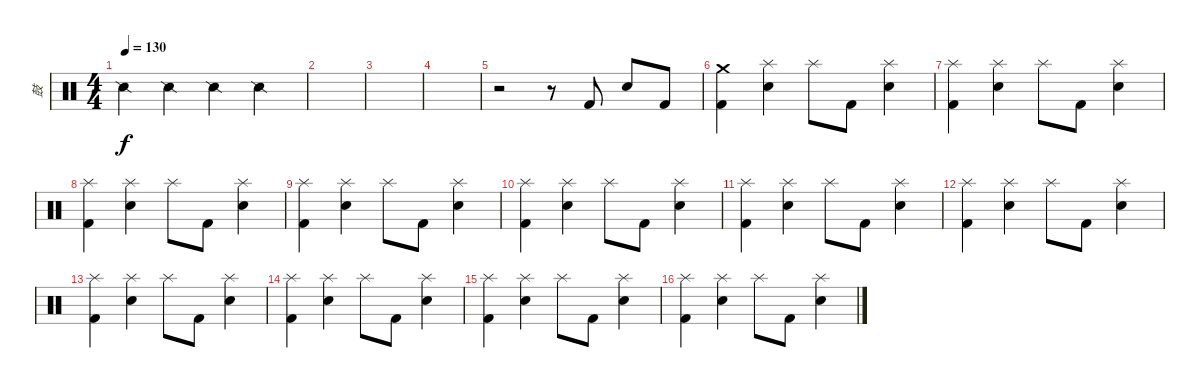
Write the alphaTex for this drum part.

\track ("鼓" "鼓") {instrument percussion}
\staff {score}
\articulation defaults
\ts (4 4)
\tempo 130
\clef neutral
\ks c "Snare (side stick) 2".4{dy f} "Snare (side stick) 2".4 "Snare (side stick) 2".4 "Snare (side stick) 2".4
|
|
|
|
r.2 r.8 "Kick (hit) 2".8 "Electric Snare (hit)".8 "Kick (hit) 2".8 |
("Crash medium (hit)" "Kick (hit) 2").4 ("Splash (hit)" "Electric Snare (hit)").4 "Splash (hit)".8 "Kick (hit) 2".8 ("Splash (hit)" "Electric Snare (hit)").4 |
("Splash (hit)" "Kick (hit) 2").4 ("Splash (hit)" "Electric Snare (hit)").4 "Splash (hit)".8 "Kick (hit) 2".8 ("Splash (hit)" "Electric Snare (hit)").4 |
("Splash (hit)" "Kick (hit) 2").4 ("Splash (hit)" "Electric Snare (hit)").4 "Splash (hit)".8 "Kick (hit) 2".8 ("Splash (hit)" "Electric Snare (hit)").4 |
("Splash (hit)" "Kick (hit) 2").4 ("Splash (hit)" "Electric Snare (hit)").4 "Splash (hit)".8 "Kick (hit) 2".8 ("Splash (hit)" "Electric Snare (hit)").4 |
("Splash (hit)" "Kick (hit) 2").4 ("Splash (hit)" "Electric Snare (hit)").4 "Splash (hit)".8 "Kick (hit) 2".8 ("Splash (hit)" "Electric Snare (hit)").4 |
("Splash (hit)" "Kick (hit) 2").4 ("Splash (hit)" "Electric Snare (hit)").4 "Splash (hit)".8 "Kick (hit) 2".8 ("Splash (hit)" "Electric Snare (hit)").4 |
("Splash (hit)" "Kick (hit) 2").4 ("Splash (hit)" "Electric Snare (hit)").4 "Splash (hit)".8 "Kick (hit) 2".8 ("Splash (hit)" "Electric Snare (hit)").4 |
("Splash (hit)" "Kick (hit) 2").4 ("Splash (hit)" "Electric Snare (hit)").4 "Splash (hit)".8 "Kick (hit) 2".8 ("Splash (hit)" "Electric Snare (hit)").4 |
("Splash (hit)" "Kick (hit) 2").4 ("Splash (hit)" "Electric Snare (hit)").4 "Splash (hit)".8 "Kick (hit) 2".8 ("Splash (hit)" "Electric Snare (hit)").4 |
("Splash (hit)" "Kick (hit) 2").4 ("Splash (hit)" "Electric Snare (hit)").4 "Splash (hit)".8 "Kick (hit) 2".8 ("Splash (hit)" "Electric Snare (hit)").4 |
("Splash (hit)" "Kick (hit) 2").4 ("Splash (hit)" "Electric Snare (hit)").4 "Splash (hit)".8 "Kick (hit) 2".8 ("Splash (hit)" "Electric Snare (hit)").4
